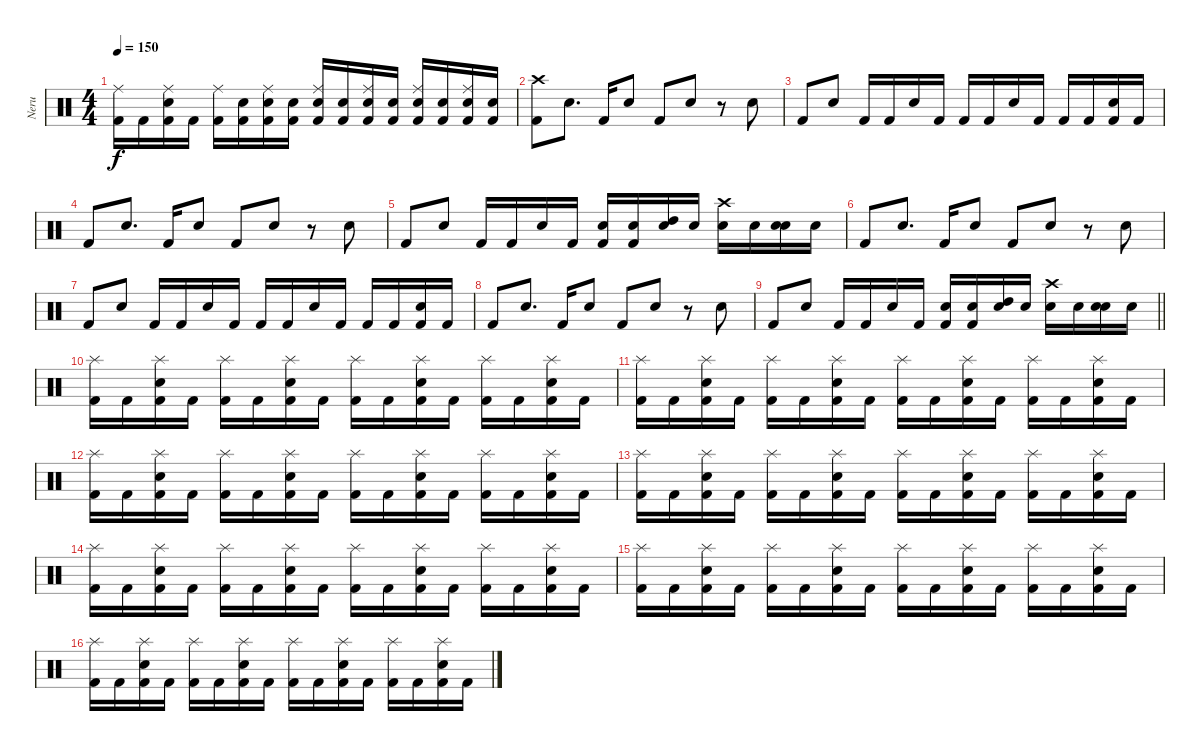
\track ("Neru" "Neru") {instrument percussion}
\staff {score}
\articulation defaults
\ts (4 4)
\tempo 150
\clef neutral
\ks c
("Kick (hit) 2" "Ride (middle)").16{dy f} "Kick (hit) 2".16 ("Kick (hit) 2" "Electric Snare (hit)" "Ride (middle)").16 "Kick (hit) 2".16 ("Kick (hit) 2" "Ride (middle)").16 ("Kick (hit) 2" "Electric Snare (hit)").16 ("Kick (hit) 2" "Electric Snare (hit)" "Ride (middle)").16 ("Kick (hit) 2" "Electric Snare (hit)").16 ("Kick (hit) 2" "Electric Snare (hit)" "Ride (middle)").16 ("Kick (hit) 2" "Electric Snare (hit)").16 ("Kick (hit) 2" "Electric Snare (hit)" "Ride (middle)").16 ("Kick (hit) 2" "Electric Snare (hit)").16 ("Kick (hit) 2" "Electric Snare (hit)" "Ride (middle)").16 ("Kick (hit) 2" "Electric Snare (hit)").16 ("Kick (hit) 2" "Electric Snare (hit)" "Ride (middle)").16 ("Kick (hit) 2" "Electric Snare (hit)").16 |
("Kick (hit) 2" "Crash high (hit)").8 "Electric Snare (hit)".8{d} "Kick (hit) 2".16 "Electric Snare (hit)".8 "Kick (hit) 2".8 "Electric Snare (hit)".8 r.8 "Electric Snare (hit)".8 |
"Kick (hit) 2".8 "Electric Snare (hit)".8 "Kick (hit) 2".16 "Kick (hit) 2".16 "Electric Snare (hit)".16 "Kick (hit) 2".16 "Kick (hit) 2".16 "Kick (hit) 2".16 "Electric Snare (hit)".16 "Kick (hit) 2".16 "Kick (hit) 2".16 "Kick (hit) 2".16 ("Kick (hit) 2" "Electric Snare (hit)").16 "Kick (hit) 2".16 |
"Kick (hit) 2".8 "Electric Snare (hit)".8{d} "Kick (hit) 2".16 "Electric Snare (hit)".8 "Kick (hit) 2".8 "Electric Snare (hit)".8 r.8 "Electric Snare (hit)".8 |
"Kick (hit) 2".8 "Electric Snare (hit)".8 "Kick (hit) 2".16 "Kick (hit) 2".16 "Electric Snare (hit)".16 "Kick (hit) 2".16 ("Snare (hit) 2" "Kick (hit) 2").16 ("Snare (hit) 2" "Kick (hit) 2").16 ("High Tom (hit)" "Electric Snare (hit)").16 "Snare (hit) 2".16 ("Snare (hit) 2" "Crash high (hit)").16 "Snare (hit) 2".16 ("Snare (hit) 2" "Electric Snare (hit)").16 "Snare (hit) 2".16 |
"Kick (hit) 2".8 "Electric Snare (hit)".8{d} "Kick (hit) 2".16 "Electric Snare (hit)".8 "Kick (hit) 2".8 "Electric Snare (hit)".8 r.8 "Electric Snare (hit)".8 |
"Kick (hit) 2".8 "Electric Snare (hit)".8 "Kick (hit) 2".16 "Kick (hit) 2".16 "Electric Snare (hit)".16 "Kick (hit) 2".16 "Kick (hit) 2".16 "Kick (hit) 2".16 "Electric Snare (hit)".16 "Kick (hit) 2".16 "Kick (hit) 2".16 "Kick (hit) 2".16 ("Kick (hit) 2" "Electric Snare (hit)").16 "Kick (hit) 2".16 |
"Kick (hit) 2".8 "Electric Snare (hit)".8{d} "Kick (hit) 2".16 "Electric Snare (hit)".8 "Kick (hit) 2".8 "Electric Snare (hit)".8 r.8 "Electric Snare (hit)".8 |
\barLineRight lightlight "Kick (hit) 2".8 "Electric Snare (hit)".8 "Kick (hit) 2".16 "Kick (hit) 2".16 "Electric Snare (hit)".16 "Kick (hit) 2".16
("Snare (hit) 2" "Kick (hit) 2").16 ("Snare (hit) 2" "Kick (hit) 2").16 ("High Tom (hit)" "Electric Snare (hit)").16 "Snare (hit) 2".16 ("Snare (hit) 2" "Crash high (hit)").16 "Snare (hit) 2".16 ("Snare (hit) 2" "Electric Snare (hit)").16 "Snare (hit) 2".16 |
("Kick (hit) 2" "Splash (hit)").16 "Kick (hit) 2".16 ("Kick (hit) 2" "Electric Snare (hit)" "Splash (hit)").16 "Kick (hit) 2".16 ("Kick (hit) 2" "Splash (hit)").16 "Kick (hit) 2".16 ("Kick (hit) 2" "Electric Snare (hit)" "Splash (hit)").16 "Kick (hit) 2".16 ("Kick (hit) 2" "Splash (hit)").16 "Kick (hit) 2".16 ("Kick (hit) 2" "Electric Snare (hit)" "Splash (hit)").16 "Kick (hit) 2".16 ("Kick (hit) 2" "Splash (hit)").16 "Kick (hit) 2".16 ("Kick (hit) 2" "Electric Snare (hit)" "Splash (hit)").16 "Kick (hit) 2".16 |
("Kick (hit) 2" "Splash (hit)").16 "Kick (hit) 2".16 ("Kick (hit) 2" "Electric Snare (hit)" "Splash (hit)").16 "Kick (hit) 2".16 ("Kick (hit) 2" "Splash (hit)").16 "Kick (hit) 2".16 ("Kick (hit) 2" "Electric Snare (hit)" "Splash (hit)").16 "Kick (hit) 2".16 ("Kick (hit) 2" "Splash (hit)").16 "Kick (hit) 2".16 ("Kick (hit) 2" "Electric Snare (hit)" "Splash (hit)").16 "Kick (hit) 2".16 ("Kick (hit) 2" "Splash (hit)").16 "Kick (hit) 2".16 ("Kick (hit) 2" "Electric Snare (hit)" "Splash (hit)").16 "Kick (hit) 2".16 |
("Kick (hit) 2" "Splash (hit)").16 "Kick (hit) 2".16 ("Kick (hit) 2" "Electric Snare (hit)" "Splash (hit)").16 "Kick (hit) 2".16 ("Kick (hit) 2" "Splash (hit)").16 "Kick (hit) 2".16 ("Kick (hit) 2" "Electric Snare (hit)" "Splash (hit)").16 "Kick (hit) 2".16 ("Kick (hit) 2" "Splash (hit)").16 "Kick (hit) 2".16 ("Kick (hit) 2" "Electric Snare (hit)" "Splash (hit)").16 "Kick (hit) 2".16 ("Kick (hit) 2" "Splash (hit)").16 "Kick (hit) 2".16 ("Kick (hit) 2" "Electric Snare (hit)" "Splash (hit)").16 "Kick (hit) 2".16 |
("Kick (hit) 2" "Splash (hit)").16 "Kick (hit) 2".16 ("Kick (hit) 2" "Electric Snare (hit)" "Splash (hit)").16 "Kick (hit) 2".16 ("Kick (hit) 2" "Splash (hit)").16 "Kick (hit) 2".16 ("Kick (hit) 2" "Electric Snare (hit)" "Splash (hit)").16 "Kick (hit) 2".16 ("Kick (hit) 2" "Splash (hit)").16 "Kick (hit) 2".16 ("Kick (hit) 2" "Electric Snare (hit)" "Splash (hit)").16 "Kick (hit) 2".16 ("Kick (hit) 2" "Splash (hit)").16 "Kick (hit) 2".16 ("Kick (hit) 2" "Electric Snare (hit)" "Splash (hit)").16 "Kick (hit) 2".16 |
("Kick (hit) 2" "Splash (hit)").16 "Kick (hit) 2".16 ("Kick (hit) 2" "Electric Snare (hit)" "Splash (hit)").16 "Kick (hit) 2".16 ("Kick (hit) 2" "Splash (hit)").16 "Kick (hit) 2".16 ("Kick (hit) 2" "Electric Snare (hit)" "Splash (hit)").16 "Kick (hit) 2".16 ("Kick (hit) 2" "Splash (hit)").16 "Kick (hit) 2".16 ("Kick (hit) 2" "Electric Snare (hit)" "Splash (hit)").16 "Kick (hit) 2".16 ("Kick (hit) 2" "Splash (hit)").16 "Kick (hit) 2".16 ("Kick (hit) 2" "Electric Snare (hit)" "Splash (hit)").16 "Kick (hit) 2".16 |
("Kick (hit) 2" "Splash (hit)").16 "Kick (hit) 2".16 ("Kick (hit) 2" "Electric Snare (hit)" "Splash (hit)").16 "Kick (hit) 2".16 ("Kick (hit) 2" "Splash (hit)").16 "Kick (hit) 2".16 ("Kick (hit) 2" "Electric Snare (hit)" "Splash (hit)").16 "Kick (hit) 2".16 ("Kick (hit) 2" "Splash (hit)").16 "Kick (hit) 2".16 ("Kick (hit) 2" "Electric Snare (hit)" "Splash (hit)").16 "Kick (hit) 2".16 ("Kick (hit) 2" "Splash (hit)").16 "Kick (hit) 2".16 ("Kick (hit) 2" "Electric Snare (hit)" "Splash (hit)").16 "Kick (hit) 2".16 |
("Kick (hit) 2" "Splash (hit)").16 "Kick (hit) 2".16 ("Kick (hit) 2" "Electric Snare (hit)" "Splash (hit)").16 "Kick (hit) 2".16 ("Kick (hit) 2" "Splash (hit)").16 "Kick (hit) 2".16 ("Kick (hit) 2" "Electric Snare (hit)" "Splash (hit)").16 "Kick (hit) 2".16 ("Kick (hit) 2" "Splash (hit)").16 "Kick (hit) 2".16 ("Kick (hit) 2" "Electric Snare (hit)" "Splash (hit)").16 "Kick (hit) 2".16 ("Kick (hit) 2" "Splash (hit)").16 "Kick (hit) 2".16 ("Kick (hit) 2" "Electric Snare (hit)" "Splash (hit)").16 "Kick (hit) 2".16
